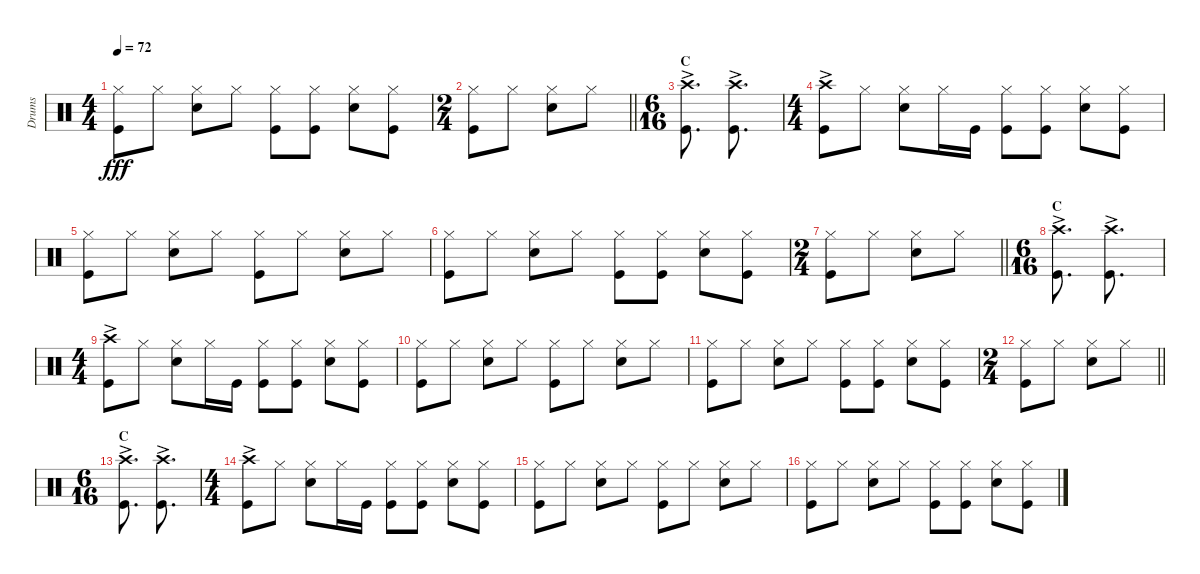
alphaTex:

\track ("Drums" "Drums") {instrument percussion}
\staff {score}
\articulation defaults
\ts (4 4)
\tempo 72
\clef neutral
\ks c
("Hi-Hat (closed)" "Kick (hit)").8{dy fff} "Hi-Hat (closed)".8 ("Hi-Hat (closed)" "Snare (hit) 2").8 "Hi-Hat (closed)".8 ("Hi-Hat (closed)" "Kick (hit)").8 ("Hi-Hat (closed)" "Kick (hit)").8 ("Hi-Hat (closed)" "Snare (hit) 2").8 ("Hi-Hat (closed)" "Kick (hit)").8 |
\ts (2 4)
\barLineRight lightlight
("Hi-Hat (closed)" "Kick (hit)").8 "Hi-Hat (closed)".8 ("Hi-Hat (closed)" "Snare (hit) 2").8 "Hi-Hat (closed)".8 |
\ts (6 16)
\section ("" "C")
("Crash high (hit)"{ac} "Kick (hit)").8{d} ("Crash high (hit)"{ac} "Kick (hit)").8{d} |
\ts (4 4)
("Crash high (hit)"{ac} "Kick (hit)").8 "Hi-Hat (closed)".8 ("Hi-Hat (closed)" "Snare (hit) 2").8 "Hi-Hat (closed)".16 "Kick (hit)".16 ("Hi-Hat (closed)" "Kick (hit)").8 ("Hi-Hat (closed)" "Kick (hit)").8 ("Hi-Hat (closed)" "Snare (hit) 2").8 ("Hi-Hat (closed)" "Kick (hit)").8 |
("Hi-Hat (closed)" "Kick (hit)").8 "Hi-Hat (closed)".8 ("Hi-Hat (closed)" "Snare (hit) 2").8 "Hi-Hat (closed)".8 ("Hi-Hat (closed)" "Kick (hit)").8 "Hi-Hat (closed)".8 ("Hi-Hat (closed)" "Snare (hit) 2").8 "Hi-Hat (closed)".8 |
("Hi-Hat (closed)" "Kick (hit)").8 "Hi-Hat (closed)".8 ("Hi-Hat (closed)" "Snare (hit) 2").8 "Hi-Hat (closed)".8 ("Hi-Hat (closed)" "Kick (hit)").8 ("Hi-Hat (closed)" "Kick (hit)").8 ("Hi-Hat (closed)" "Snare (hit) 2").8 ("Hi-Hat (closed)" "Kick (hit)").8 |
\ts (2 4)
\barLineRight lightlight
("Hi-Hat (closed)" "Kick (hit)").8 "Hi-Hat (closed)".8 ("Hi-Hat (closed)" "Snare (hit) 2").8 "Hi-Hat (closed)".8 |
\ts (6 16)
\section ("" "C")
("Crash high (hit)"{ac} "Kick (hit)").8{d} ("Crash high (hit)"{ac} "Kick (hit)").8{d} |
\ts (4 4)
("Crash high (hit)"{ac} "Kick (hit)").8 "Hi-Hat (closed)".8 ("Hi-Hat (closed)" "Snare (hit) 2").8 "Hi-Hat (closed)".16 "Kick (hit)".16 ("Hi-Hat (closed)" "Kick (hit)").8 ("Hi-Hat (closed)" "Kick (hit)").8 ("Hi-Hat (closed)" "Snare (hit) 2").8 ("Hi-Hat (closed)" "Kick (hit)").8 |
("Hi-Hat (closed)" "Kick (hit)").8 "Hi-Hat (closed)".8 ("Hi-Hat (closed)" "Snare (hit) 2").8 "Hi-Hat (closed)".8 ("Hi-Hat (closed)" "Kick (hit)").8 "Hi-Hat (closed)".8 ("Hi-Hat (closed)" "Snare (hit) 2").8 "Hi-Hat (closed)".8 |
("Hi-Hat (closed)" "Kick (hit)").8 "Hi-Hat (closed)".8 ("Hi-Hat (closed)" "Snare (hit) 2").8 "Hi-Hat (closed)".8 ("Hi-Hat (closed)" "Kick (hit)").8 ("Hi-Hat (closed)" "Kick (hit)").8 ("Hi-Hat (closed)" "Snare (hit) 2").8 ("Hi-Hat (closed)" "Kick (hit)").8 |
\ts (2 4)
\barLineRight lightlight
("Hi-Hat (closed)" "Kick (hit)").8 "Hi-Hat (closed)".8 ("Hi-Hat (closed)" "Snare (hit) 2").8 "Hi-Hat (closed)".8 |
\ts (6 16)
\section ("" "C")
("Crash high (hit)"{ac} "Kick (hit)").8{d} ("Crash high (hit)"{ac} "Kick (hit)").8{d} |
\ts (4 4)
("Crash high (hit)"{ac} "Kick (hit)").8 "Hi-Hat (closed)".8 ("Hi-Hat (closed)" "Snare (hit) 2").8 "Hi-Hat (closed)".16 "Kick (hit)".16 ("Hi-Hat (closed)" "Kick (hit)").8 ("Hi-Hat (closed)" "Kick (hit)").8 ("Hi-Hat (closed)" "Snare (hit) 2").8 ("Hi-Hat (closed)" "Kick (hit)").8 |
("Hi-Hat (closed)" "Kick (hit)").8 "Hi-Hat (closed)".8 ("Hi-Hat (closed)" "Snare (hit) 2").8 "Hi-Hat (closed)".8 ("Hi-Hat (closed)" "Kick (hit)").8 "Hi-Hat (closed)".8 ("Hi-Hat (closed)" "Snare (hit) 2").8 "Hi-Hat (closed)".8 |
("Hi-Hat (closed)" "Kick (hit)").8 "Hi-Hat (closed)".8 ("Hi-Hat (closed)" "Snare (hit) 2").8 "Hi-Hat (closed)".8 ("Hi-Hat (closed)" "Kick (hit)").8 ("Hi-Hat (closed)" "Kick (hit)").8 ("Hi-Hat (closed)" "Snare (hit) 2").8 ("Hi-Hat (closed)" "Kick (hit)").8
